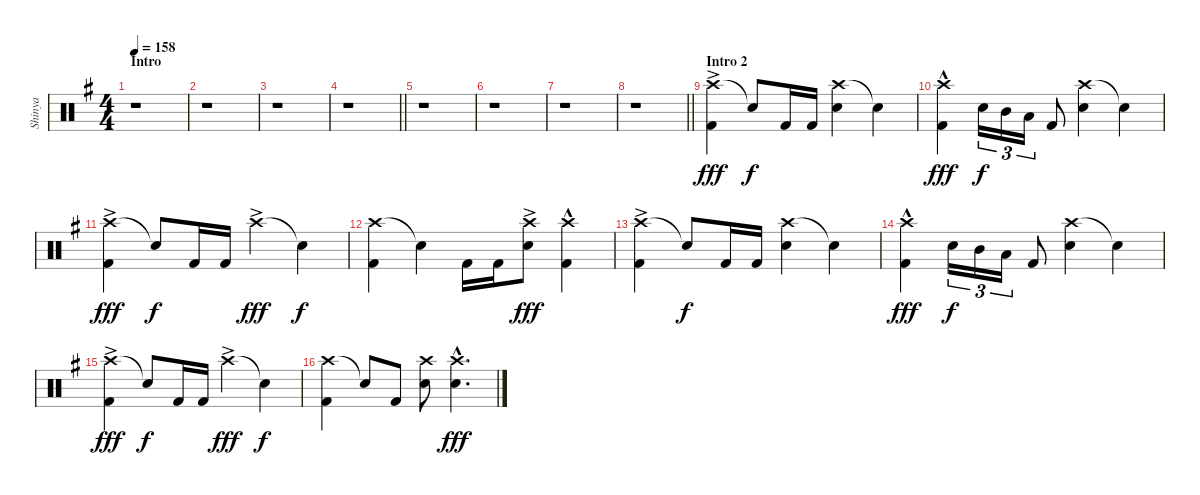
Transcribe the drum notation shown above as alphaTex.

\track ("Shinya" "Shinya") {instrument percussion}
\staff {score}
\articulation defaults
\ts (4 4)
\section ("" "Intro")
\tempo 158
\clef neutral
\ks g
r.1{dy fff} |
r.1 |
r.1 |
\barLineRight lightlight
r.1 |
r.1 |
r.1 |
r.1 |
\barLineRight lightlight
r.1 |
\section ("" "Intro 2")
("Crash high (hit)"{ac} "Kick (hit) 2").4 "Snare (hit)"{t}.8{dy f} "Kick (hit) 2".16 "Kick (hit) 2".16 ("Crash high (hit)" "Snare (hit) 2").4 "Snare (hit)"{t}.4 |
("Crash high (hit)"{hac} "Kick (hit) 2").4{dy fff} "Snare (hit) 2".16{tu (3 2) dy f} "Mid Tom (hit)".16{tu (3 2)} "Low Tom (hit)".16{tu (3 2)} "Kick (hit) 2".8 ("Crash high (hit)" "Snare (hit) 2").4 "Snare (hit)"{t}.4 |
("Crash high (hit)"{ac} "Kick (hit) 2").4{dy fff} "Snare (hit)"{t}.8{dy f} "Kick (hit) 2".16 "Kick (hit) 2".16 "Crash high (hit)"{ac}.4{dy fff} "Snare (hit)"{t}.4{dy f} |
("Crash high (hit)" "Kick (hit) 2").4 "Snare (hit)"{t}.4 "Kick (hit) 2".16 "Kick (hit) 2".16 ("Crash high (hit)"{ac} "Snare (hit) 2").8{dy fff} ("Crash high (hit)"{hac} "Kick (hit) 2").4 |
("Crash high (hit)"{ac} "Kick (hit) 2").4 "Snare (hit)"{t}.8{dy f} "Kick (hit) 2".16 "Kick (hit) 2".16 ("Crash high (hit)" "Snare (hit) 2").4 "Snare (hit)"{t}.4 |
("Crash high (hit)"{hac} "Kick (hit) 2").4{dy fff} "Snare (hit) 2".16{tu (3 2) dy f} "Mid Tom (hit)".16{tu (3 2)} "Low Tom (hit)".16{tu (3 2)} "Kick (hit) 2".8 ("Crash high (hit)" "Snare (hit) 2").4 "Snare (hit)"{t}.4 |
("Crash high (hit)"{ac} "Kick (hit) 2").4{dy fff} "Snare (hit)"{t}.8{dy f} "Kick (hit) 2".16 "Kick (hit) 2".16 "Crash high (hit)"{ac}.4{dy fff} "Snare (hit)"{t}.4{dy f} |
("Crash high (hit)" "Kick (hit) 2").4 "Snare (hit)"{t}.8 "Kick (hit) 2".8 ("Crash high (hit)" "Snare (hit) 2").8 ("Crash high (hit)"{hac} "Snare (hit) 2"{hac}).4{d dy fff}
